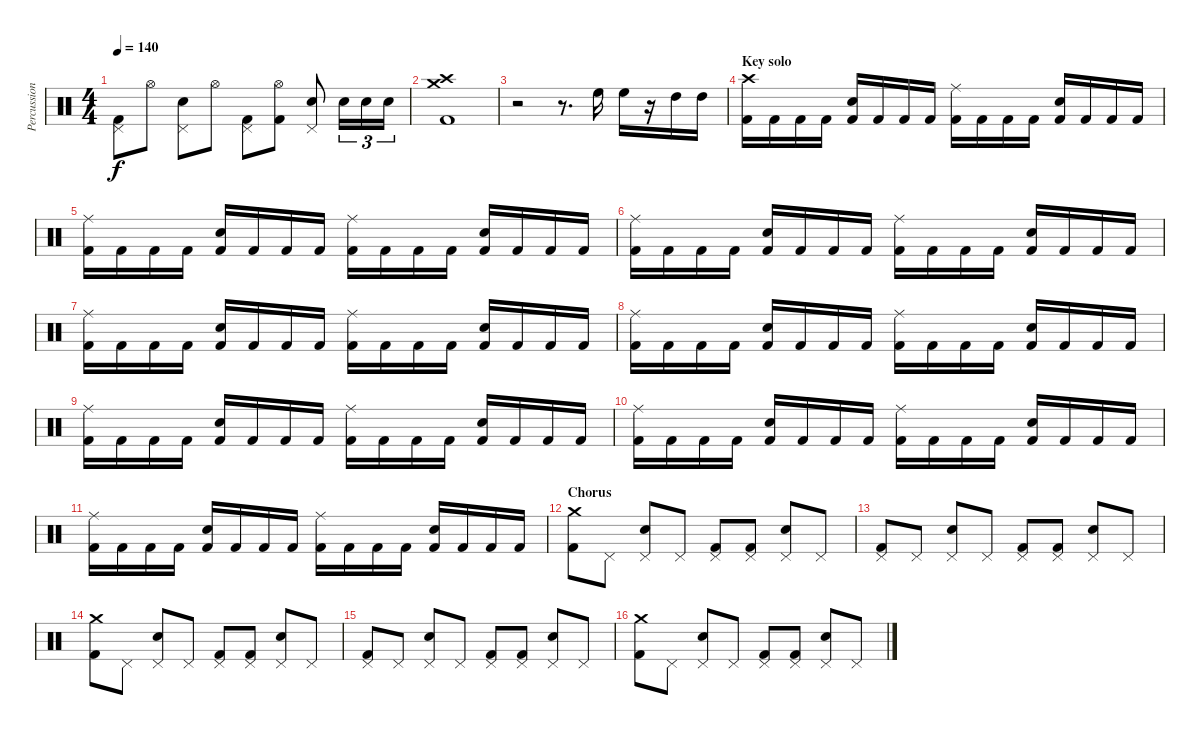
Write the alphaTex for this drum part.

\track ("Percussioni" "Percussion") {instrument percussion}
\staff {score}
\articulation defaults
\ts (4 4)
\tempo 140
\clef neutral
\ks c
("Pedal Hi-Hat (hit)" "Kick (hit) 2").8{dy f} "Hi-Hat (open)".8 ("Pedal Hi-Hat (hit)" "Electric Snare (hit)").8 "Hi-Hat (open)".8 ("Pedal Hi-Hat (hit)" "Kick (hit) 2").8 ("Hi-Hat (open)" "Kick (hit) 2").8 ("Pedal Hi-Hat (hit)" "Electric Snare (hit)").8 "Electric Snare (hit)".16{tu (3 2)} "Electric Snare (hit)".16{tu (3 2)} "Electric Snare (hit)".16{tu (3 2)} |
("Crash medium (hit)" "Crash high (hit)" "Kick (hit) 2").1 |
r.2 r.8{d} "High Floor Tom (hit)".16 "High Floor Tom (hit)".16 r.16 "High Tom (hit)".16 "High Tom (hit)".16 |
\section ("" "Key solo")
("Crash high (hit)" "Kick (hit) 2").16 "Kick (hit) 2".16 "Kick (hit) 2".16 "Kick (hit) 2".16 ("Electric Snare (hit)" "Kick (hit) 2").16 "Kick (hit) 2".16 "Kick (hit) 2".16 "Kick (hit) 2".16 ("Ride (middle)" "Kick (hit) 2").16 "Kick (hit) 2".16 "Kick (hit) 2".16 "Kick (hit) 2".16 ("Electric Snare (hit)" "Kick (hit) 2").16 "Kick (hit) 2".16 "Kick (hit) 2".16 "Kick (hit) 2".16 |
("Ride (middle)" "Kick (hit) 2").16 "Kick (hit) 2".16 "Kick (hit) 2".16 "Kick (hit) 2".16 ("Electric Snare (hit)" "Kick (hit) 2").16 "Kick (hit) 2".16 "Kick (hit) 2".16 "Kick (hit) 2".16 ("Ride (middle)" "Kick (hit) 2").16 "Kick (hit) 2".16 "Kick (hit) 2".16 "Kick (hit) 2".16 ("Electric Snare (hit)" "Kick (hit) 2").16 "Kick (hit) 2".16 "Kick (hit) 2".16 "Kick (hit) 2".16 |
("Ride (middle)" "Kick (hit) 2").16 "Kick (hit) 2".16 "Kick (hit) 2".16 "Kick (hit) 2".16 ("Electric Snare (hit)" "Kick (hit) 2").16 "Kick (hit) 2".16 "Kick (hit) 2".16 "Kick (hit) 2".16 ("Ride (middle)" "Kick (hit) 2").16 "Kick (hit) 2".16 "Kick (hit) 2".16 "Kick (hit) 2".16 ("Electric Snare (hit)" "Kick (hit) 2").16 "Kick (hit) 2".16 "Kick (hit) 2".16 "Kick (hit) 2".16 |
("Ride (middle)" "Kick (hit) 2").16 "Kick (hit) 2".16 "Kick (hit) 2".16 "Kick (hit) 2".16 ("Electric Snare (hit)" "Kick (hit) 2").16 "Kick (hit) 2".16 "Kick (hit) 2".16 "Kick (hit) 2".16 ("Ride (middle)" "Kick (hit) 2").16 "Kick (hit) 2".16 "Kick (hit) 2".16 "Kick (hit) 2".16 ("Electric Snare (hit)" "Kick (hit) 2").16 "Kick (hit) 2".16 "Kick (hit) 2".16 "Kick (hit) 2".16 |
("Ride (middle)" "Kick (hit) 2").16 "Kick (hit) 2".16 "Kick (hit) 2".16 "Kick (hit) 2".16 ("Electric Snare (hit)" "Kick (hit) 2").16 "Kick (hit) 2".16 "Kick (hit) 2".16 "Kick (hit) 2".16 ("Ride (middle)" "Kick (hit) 2").16 "Kick (hit) 2".16 "Kick (hit) 2".16 "Kick (hit) 2".16 ("Electric Snare (hit)" "Kick (hit) 2").16 "Kick (hit) 2".16 "Kick (hit) 2".16 "Kick (hit) 2".16 |
("Ride (middle)" "Kick (hit) 2").16 "Kick (hit) 2".16 "Kick (hit) 2".16 "Kick (hit) 2".16 ("Electric Snare (hit)" "Kick (hit) 2").16 "Kick (hit) 2".16 "Kick (hit) 2".16 "Kick (hit) 2".16 ("Ride (middle)" "Kick (hit) 2").16 "Kick (hit) 2".16 "Kick (hit) 2".16 "Kick (hit) 2".16 ("Electric Snare (hit)" "Kick (hit) 2").16 "Kick (hit) 2".16 "Kick (hit) 2".16 "Kick (hit) 2".16 |
("Ride (middle)" "Kick (hit) 2").16 "Kick (hit) 2".16 "Kick (hit) 2".16 "Kick (hit) 2".16 ("Electric Snare (hit)" "Kick (hit) 2").16 "Kick (hit) 2".16 "Kick (hit) 2".16 "Kick (hit) 2".16 ("Ride (middle)" "Kick (hit) 2").16 "Kick (hit) 2".16 "Kick (hit) 2".16 "Kick (hit) 2".16 ("Electric Snare (hit)" "Kick (hit) 2").16 "Kick (hit) 2".16 "Kick (hit) 2".16 "Kick (hit) 2".16 |
("Ride (middle)" "Kick (hit) 2").16 "Kick (hit) 2".16 "Kick (hit) 2".16 "Kick (hit) 2".16 ("Electric Snare (hit)" "Kick (hit) 2").16 "Kick (hit) 2".16 "Kick (hit) 2".16 "Kick (hit) 2".16 ("Ride (middle)" "Kick (hit) 2").16 "Kick (hit) 2".16 "Kick (hit) 2".16 "Kick (hit) 2".16 ("Electric Snare (hit)" "Kick (hit) 2").16 "Kick (hit) 2".16 "Kick (hit) 2".16 "Kick (hit) 2".16 |
\section ("" "Chorus")
("Crash medium (hit)" "Kick (hit) 2").8 "Pedal Hi-Hat (hit)".8 ("Pedal Hi-Hat (hit)" "Electric Snare (hit)").8 "Pedal Hi-Hat (hit)".8 ("Pedal Hi-Hat (hit)" "Kick (hit) 2").8 ("Pedal Hi-Hat (hit)" "Kick (hit) 2").8 ("Pedal Hi-Hat (hit)" "Electric Snare (hit)").8 "Pedal Hi-Hat (hit)".8 |
("Pedal Hi-Hat (hit)" "Kick (hit) 2").8 "Pedal Hi-Hat (hit)".8 ("Pedal Hi-Hat (hit)" "Electric Snare (hit)").8 "Pedal Hi-Hat (hit)".8 ("Pedal Hi-Hat (hit)" "Kick (hit) 2").8 ("Pedal Hi-Hat (hit)" "Kick (hit) 2").8 ("Pedal Hi-Hat (hit)" "Electric Snare (hit)").8 "Pedal Hi-Hat (hit)".8 |
("Crash medium (hit)" "Kick (hit) 2").8 "Pedal Hi-Hat (hit)".8 ("Pedal Hi-Hat (hit)" "Electric Snare (hit)").8 "Pedal Hi-Hat (hit)".8 ("Pedal Hi-Hat (hit)" "Kick (hit) 2").8 ("Pedal Hi-Hat (hit)" "Kick (hit) 2").8 ("Pedal Hi-Hat (hit)" "Electric Snare (hit)").8 "Pedal Hi-Hat (hit)".8 |
("Pedal Hi-Hat (hit)" "Kick (hit) 2").8 "Pedal Hi-Hat (hit)".8 ("Pedal Hi-Hat (hit)" "Electric Snare (hit)").8 "Pedal Hi-Hat (hit)".8 ("Pedal Hi-Hat (hit)" "Kick (hit) 2").8 ("Pedal Hi-Hat (hit)" "Kick (hit) 2").8 ("Pedal Hi-Hat (hit)" "Electric Snare (hit)").8 "Pedal Hi-Hat (hit)".8 |
("Crash medium (hit)" "Kick (hit) 2").8 "Pedal Hi-Hat (hit)".8 ("Pedal Hi-Hat (hit)" "Electric Snare (hit)").8 "Pedal Hi-Hat (hit)".8 ("Pedal Hi-Hat (hit)" "Kick (hit) 2").8 ("Pedal Hi-Hat (hit)" "Kick (hit) 2").8 ("Pedal Hi-Hat (hit)" "Electric Snare (hit)").8 "Pedal Hi-Hat (hit)".8
